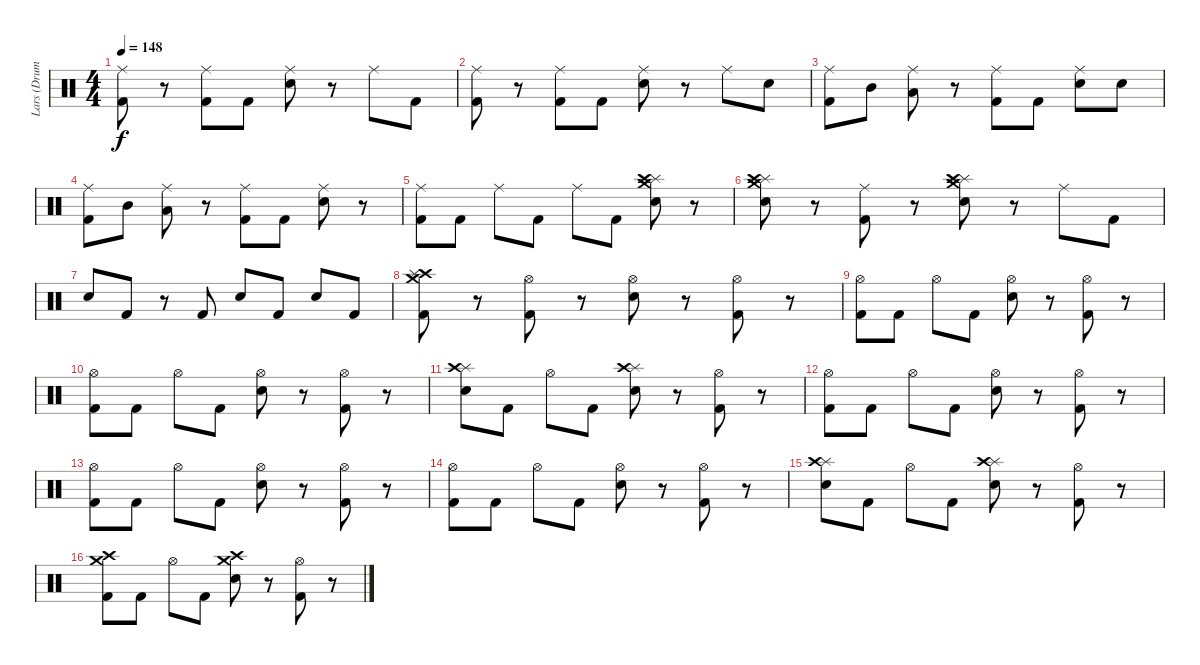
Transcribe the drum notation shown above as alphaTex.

\track ("Lars (Drums)" "Lars (Drum") {instrument percussion}
\staff {score}
\articulation defaults
\ts (4 4)
\tempo 148
\clef neutral
\ks c
("Ride (middle)" "Kick (hit) 2").8{dy f} r.8 ("Ride (middle)" "Kick (hit) 2").8 "Kick (hit) 2".8 ("Ride (middle)" "Snare (hit) 2").8 r.8 "Ride (middle)".8 "Kick (hit) 2".8 |
("Ride (middle)" "Kick (hit) 2").8 r.8 ("Ride (middle)" "Kick (hit) 2").8 "Kick (hit) 2".8 ("Ride (middle)" "Snare (hit) 2").8 r.8 "Ride (middle)".8 "Snare (hit) 2".8 |
("Ride (middle)" "Kick (hit) 2").8 "Mid Tom (hit)".8 ("Ride (middle)" "Low Tom (hit)").8 r.8 ("Ride (middle)" "Kick (hit) 2").8 "Kick (hit) 2".8 ("Ride (middle)" "Snare (hit) 2").8 "Snare (hit) 2".8 |
("Ride (middle)" "Kick (hit) 2").8 "Mid Tom (hit)".8 ("Ride (middle)" "Low Tom (hit)").8 r.8 ("Ride (middle)" "Kick (hit) 2").8 "Kick (hit) 2".8 ("Ride (middle)" "Snare (hit) 2").8 r.8 |
("Ride (middle)" "Kick (hit) 2").8 "Kick (hit) 2".8 "Ride (middle)".8 "Kick (hit) 2".8 "Ride (middle)".8 "Kick (hit) 2".8 ("Crash medium (hit)" "Splash (hit)" "Crash high (hit)" "Snare (hit) 2").8 r.8 |
("Splash (hit)" "Crash medium (hit)" "Crash high (hit)" "Snare (hit) 2").8 r.8 ("Ride (middle)" "Kick (hit) 2").8 r.8 ("Crash medium (hit)" "Splash (hit)" "Crash high (hit)" "Snare (hit) 2").8 r.8 "Ride (middle)".8 "Kick (hit) 2".8 |
"Snare (hit) 2".8 "Kick (hit) 2".8 r.8 "Kick (hit) 2".8 "Snare (hit) 2".8 "Kick (hit) 2".8 "Snare (hit) 2".8 "Kick (hit) 2".8 |
("Crash high (hit)" "Splash (hit)" "Crash medium (hit)" "Kick (hit) 2").8 r.8 ("Kick (hit) 2" "Hi-Hat (open)").8 r.8 ("Hi-Hat (open)" "Snare (hit) 2").8 r.8 ("Kick (hit) 2" "Hi-Hat (open)").8 r.8 |
("Hi-Hat (open)" "Kick (hit) 2").8 "Kick (hit) 2".8 "Hi-Hat (open)".8 "Kick (hit) 2".8 ("Hi-Hat (open)" "Snare (hit) 2").8 r.8 ("Kick (hit) 2" "Hi-Hat (open)").8 r.8 |
("Hi-Hat (open)" "Kick (hit) 2").8 "Kick (hit) 2".8 "Hi-Hat (open)".8 "Kick (hit) 2".8 ("Hi-Hat (open)" "Snare (hit) 2").8 r.8 ("Kick (hit) 2" "Hi-Hat (open)").8 r.8 |
("Splash (hit)" "Crash high (hit)" "Snare (hit) 2").8 "Kick (hit) 2".8 "Hi-Hat (open)".8 "Kick (hit) 2".8 ("Splash (hit)" "Crash high (hit)" "Snare (hit) 2").8 r.8 ("Hi-Hat (open)" "Kick (hit) 2").8 r.8 |
("Hi-Hat (open)" "Kick (hit) 2").8 "Kick (hit) 2".8 "Hi-Hat (open)".8 "Kick (hit) 2".8 ("Hi-Hat (open)" "Snare (hit) 2").8 r.8 ("Kick (hit) 2" "Hi-Hat (open)").8 r.8 |
("Hi-Hat (open)" "Kick (hit) 2").8 "Kick (hit) 2".8 "Hi-Hat (open)".8 "Kick (hit) 2".8 ("Hi-Hat (open)" "Snare (hit) 2").8 r.8 ("Kick (hit) 2" "Hi-Hat (open)").8 r.8 |
("Hi-Hat (open)" "Kick (hit) 2").8 "Kick (hit) 2".8 "Hi-Hat (open)".8 "Kick (hit) 2".8 ("Hi-Hat (open)" "Snare (hit) 2").8 r.8 ("Kick (hit) 2" "Hi-Hat (open)").8 r.8 |
("Splash (hit)" "Crash high (hit)" "Snare (hit) 2").8 "Kick (hit) 2".8 "Hi-Hat (open)".8 "Kick (hit) 2".8 ("Splash (hit)" "Crash high (hit)" "Snare (hit) 2").8 r.8 ("Hi-Hat (open)" "Kick (hit) 2").8 r.8 |
("Crash medium (hit)" "Crash high (hit)" "Kick (hit) 2").8 "Kick (hit) 2".8 "Hi-Hat (open)".8 "Kick (hit) 2".8 ("Crash medium (hit)" "Crash high (hit)" "Snare (hit) 2").8 r.8 ("Kick (hit) 2" "Hi-Hat (open)").8 r.8
